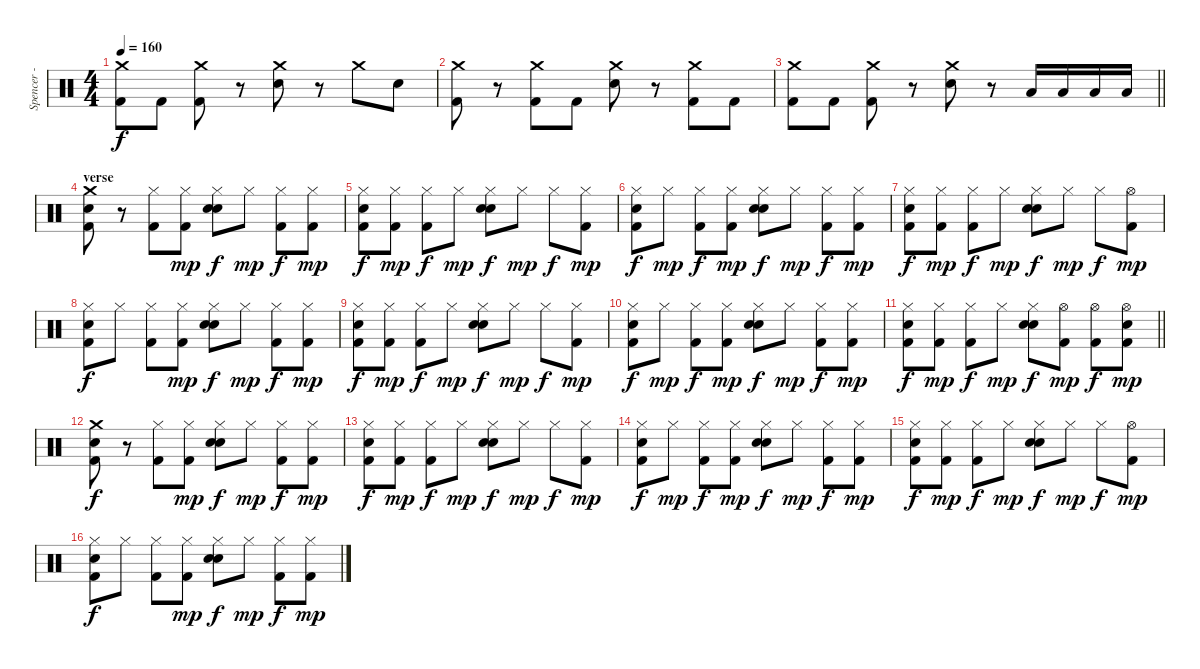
\track ("Spencer - Drums" "Spencer - ") {instrument percussion}
\staff {score}
\articulation defaults
\ts (4 4)
\tempo 160
\clef neutral
\ks c
("Crash medium (hit)" "Kick (hit) 2").8{dy f} "Kick (hit) 2".8 ("Crash medium (hit)" "Kick (hit) 2").8 r.8 ("Crash medium (hit)" "Electric Snare (hit)").8 r.8 "Crash medium (hit)".8 "Electric Snare (hit)".8 |
("Crash medium (hit)" "Kick (hit) 2").8 r.8 ("Crash medium (hit)" "Kick (hit) 2").8 "Kick (hit) 2".8 ("Crash medium (hit)" "Electric Snare (hit)").8 r.8 ("Crash medium (hit)" "Kick (hit) 2").8 "Kick (hit) 2".8 |
\barLineRight lightlight
("Crash medium (hit)" "Kick (hit) 2").8 "Kick (hit) 2".8 ("Crash medium (hit)" "Kick (hit) 2").8 r.8 ("Crash medium (hit)" "Electric Snare (hit)").8 r.8 "Low Tom (hit)".16 "Low Tom (hit)".16 "Low Tom (hit)".16 "Low Tom (hit)".16 |
\section ("" "verse")
("Hand Clap (hit)" "Crash medium (hit)" "Kick (hit) 2").8 r.8 ("Hi-Hat (closed)" "Kick (hit) 2").8 ("Hi-Hat (closed)" "Kick (hit) 2").8{dy mp} ("Hand Clap (hit)" "Hi-Hat (closed)" "Electric Snare (hit)").8{dy f} "Hi-Hat (closed)".8{dy mp} ("Hi-Hat (closed)" "Kick (hit) 2").8{dy f} ("Hi-Hat (closed)" "Kick (hit) 2").8{dy mp} |
("Hand Clap (hit)" "Hi-Hat (closed)" "Kick (hit) 2").8{dy f} ("Hi-Hat (closed)" "Kick (hit) 2").8{dy mp} ("Hi-Hat (closed)" "Kick (hit) 2").8{dy f} "Hi-Hat (closed)".8{dy mp} ("Hand Clap (hit)" "Hi-Hat (closed)" "Electric Snare (hit)").8{dy f} "Hi-Hat (closed)".8{dy mp} "Hi-Hat (closed)".8{dy f} ("Hi-Hat (closed)" "Kick (hit) 2").8{dy mp} |
("Hand Clap (hit)" "Hi-Hat (closed)" "Kick (hit) 2").8{dy f} "Hi-Hat (closed)".8{dy mp} ("Hi-Hat (closed)" "Kick (hit) 2").8{dy f} ("Hi-Hat (closed)" "Kick (hit) 2").8{dy mp} ("Hand Clap (hit)" "Hi-Hat (closed)" "Electric Snare (hit)").8{dy f} "Hi-Hat (closed)".8{dy mp} ("Hi-Hat (closed)" "Kick (hit) 2").8{dy f} ("Hi-Hat (closed)" "Kick (hit) 2").8{dy mp} |
("Hand Clap (hit)" "Hi-Hat (closed)" "Kick (hit) 2").8{dy f} ("Hi-Hat (closed)" "Kick (hit) 2").8{dy mp} ("Hi-Hat (closed)" "Kick (hit) 2").8{dy f} "Hi-Hat (closed)".8{dy mp} ("Hand Clap (hit)" "Hi-Hat (closed)" "Electric Snare (hit)").8{dy f} "Hi-Hat (closed)".8{dy mp} "Hi-Hat (closed)".8{dy f} ("Hi-Hat (open)" "Kick (hit) 2").8{dy mp} |
("Hand Clap (hit)" "Hi-Hat (closed)" "Kick (hit) 2").8{dy f} "Hi-Hat (closed)".8 ("Hi-Hat (closed)" "Kick (hit) 2").8 ("Hi-Hat (closed)" "Kick (hit) 2").8{dy mp} ("Hand Clap (hit)" "Hi-Hat (closed)" "Electric Snare (hit)").8{dy f} "Hi-Hat (closed)".8{dy mp} ("Hi-Hat (closed)" "Kick (hit) 2").8{dy f} ("Hi-Hat (closed)" "Kick (hit) 2").8{dy mp} |
("Hand Clap (hit)" "Hi-Hat (closed)" "Kick (hit) 2").8{dy f} ("Hi-Hat (closed)" "Kick (hit) 2").8{dy mp} ("Hi-Hat (closed)" "Kick (hit) 2").8{dy f} "Hi-Hat (closed)".8{dy mp} ("Hand Clap (hit)" "Hi-Hat (closed)" "Electric Snare (hit)").8{dy f} "Hi-Hat (closed)".8{dy mp} "Hi-Hat (closed)".8{dy f} ("Hi-Hat (closed)" "Kick (hit) 2").8{dy mp} |
("Hand Clap (hit)" "Hi-Hat (closed)" "Kick (hit) 2").8{dy f} "Hi-Hat (closed)".8{dy mp} ("Hi-Hat (closed)" "Kick (hit) 2").8{dy f} ("Hi-Hat (closed)" "Kick (hit) 2").8{dy mp} ("Hand Clap (hit)" "Hi-Hat (closed)" "Electric Snare (hit)").8{dy f} "Hi-Hat (closed)".8{dy mp} ("Hi-Hat (closed)" "Kick (hit) 2").8{dy f} ("Hi-Hat (closed)" "Kick (hit) 2").8{dy mp} |
\barLineRight lightlight
("Hand Clap (hit)" "Hi-Hat (closed)" "Kick (hit) 2").8{dy f} ("Hi-Hat (closed)" "Kick (hit) 2").8{dy mp} ("Hi-Hat (closed)" "Kick (hit) 2").8{dy f} "Hi-Hat (closed)".8{dy mp} ("Hand Clap (hit)" "Hi-Hat (closed)" "Electric Snare (hit)").8{dy f} ("Hi-Hat (open)" "Kick (hit) 2").8{dy mp} ("Hi-Hat (open)" "Kick (hit) 2").8{dy f} ("Hi-Hat (open)" "Electric Snare (hit)" "Kick (hit) 2").8{dy mp} |
\section ("" "")
("Hand Clap (hit)" "Crash medium (hit)" "Kick (hit) 2").8{dy f} r.8 ("Hi-Hat (closed)" "Kick (hit) 2").8 ("Hi-Hat (closed)" "Kick (hit) 2").8{dy mp} ("Hand Clap (hit)" "Hi-Hat (closed)" "Electric Snare (hit)").8{dy f} "Hi-Hat (closed)".8{dy mp} ("Hi-Hat (closed)" "Kick (hit) 2").8{dy f} ("Hi-Hat (closed)" "Kick (hit) 2").8{dy mp} |
("Hand Clap (hit)" "Hi-Hat (closed)" "Kick (hit) 2").8{dy f} ("Hi-Hat (closed)" "Kick (hit) 2").8{dy mp} ("Hi-Hat (closed)" "Kick (hit) 2").8{dy f} "Hi-Hat (closed)".8{dy mp} ("Hand Clap (hit)" "Hi-Hat (closed)" "Electric Snare (hit)").8{dy f} "Hi-Hat (closed)".8{dy mp} "Hi-Hat (closed)".8{dy f} ("Hi-Hat (closed)" "Kick (hit) 2").8{dy mp} |
("Hand Clap (hit)" "Hi-Hat (closed)" "Kick (hit) 2").8{dy f} "Hi-Hat (closed)".8{dy mp} ("Hi-Hat (closed)" "Kick (hit) 2").8{dy f} ("Hi-Hat (closed)" "Kick (hit) 2").8{dy mp} ("Hand Clap (hit)" "Hi-Hat (closed)" "Electric Snare (hit)").8{dy f} "Hi-Hat (closed)".8{dy mp} ("Hi-Hat (closed)" "Kick (hit) 2").8{dy f} ("Hi-Hat (closed)" "Kick (hit) 2").8{dy mp} |
("Hand Clap (hit)" "Hi-Hat (closed)" "Kick (hit) 2").8{dy f} ("Hi-Hat (closed)" "Kick (hit) 2").8{dy mp} ("Hi-Hat (closed)" "Kick (hit) 2").8{dy f} "Hi-Hat (closed)".8{dy mp} ("Hand Clap (hit)" "Hi-Hat (closed)" "Electric Snare (hit)").8{dy f} "Hi-Hat (closed)".8{dy mp} "Hi-Hat (closed)".8{dy f} ("Hi-Hat (open)" "Kick (hit) 2").8{dy mp} |
("Hand Clap (hit)" "Hi-Hat (closed)" "Kick (hit) 2").8{dy f} "Hi-Hat (closed)".8 ("Hi-Hat (closed)" "Kick (hit) 2").8 ("Hi-Hat (closed)" "Kick (hit) 2").8{dy mp} ("Hand Clap (hit)" "Hi-Hat (closed)" "Electric Snare (hit)").8{dy f} "Hi-Hat (closed)".8{dy mp} ("Hi-Hat (closed)" "Kick (hit) 2").8{dy f} ("Hi-Hat (closed)" "Kick (hit) 2").8{dy mp}
